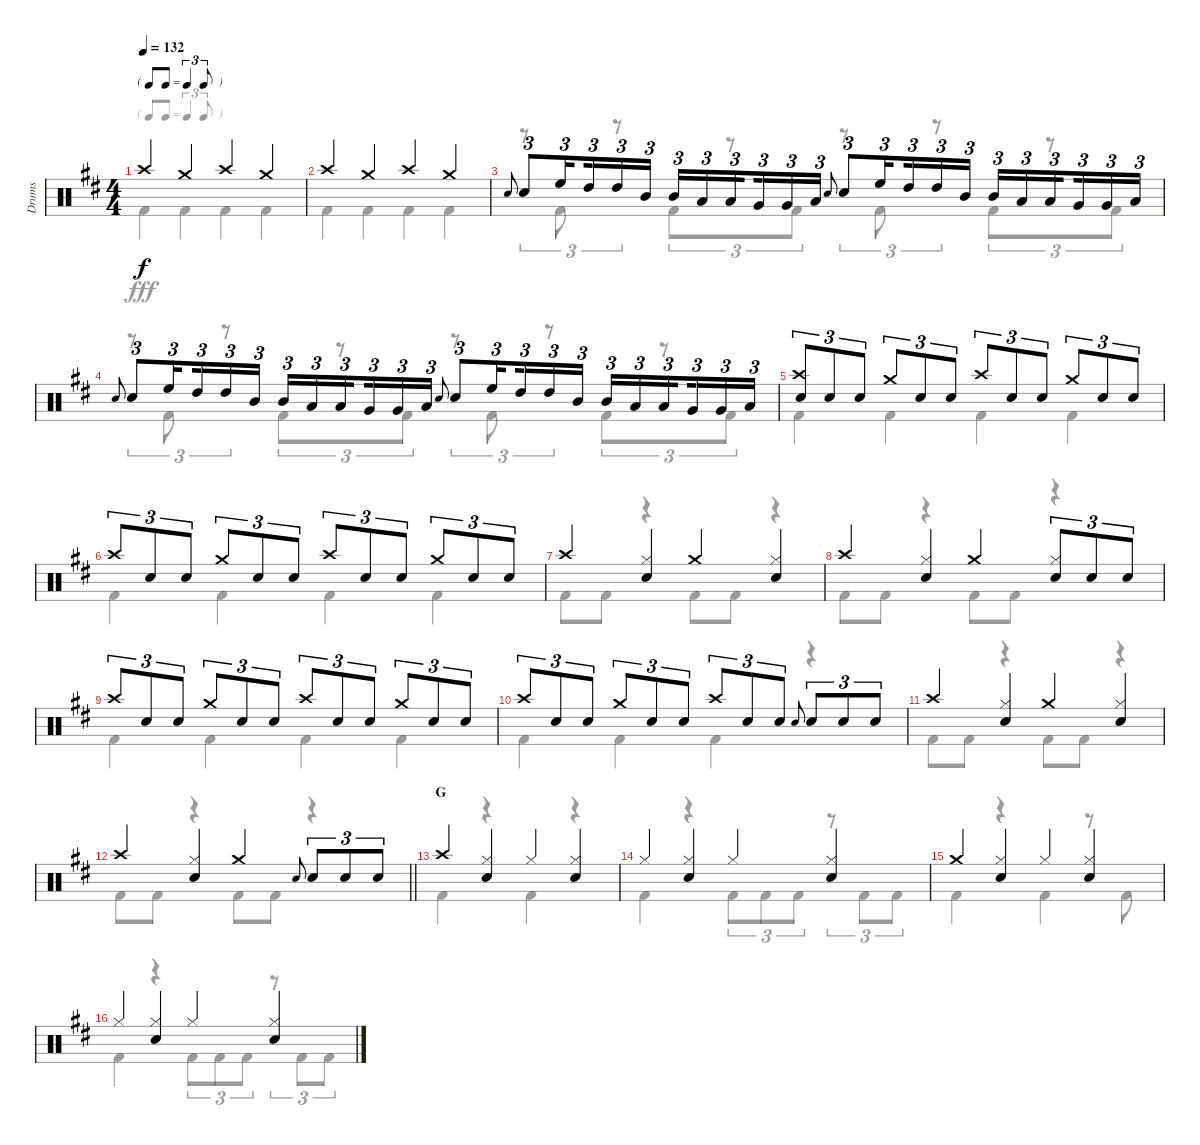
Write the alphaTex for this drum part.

\track ("Drums" "Drums") {instrument percussion}
\staff {score}
\articulation defaults
\voice
\ts (4 4)
\tf triplet8th
\tempo 132
\clef neutral
\ks d "Crash high (hit)".4{dy f} "Crash medium (hit)".4 "Crash high (hit)".4 "Crash medium (hit)".4
|
"Crash high (hit)".4 "Crash medium (hit)".4 "Crash high (hit)".4 "Crash medium (hit)".4 |
"Snare (hit) 2".8{gr onbeat} "Snare (hit) 2".8{tu (3 2)} "High Floor Tom (hit)".16{tu (3 2) beam splitsecondary} "High Tom (hit)".16{tu (3 2)} "High Tom (hit)".16{tu (3 2)} "Mid Tom (hit)".16{tu (3 2)} "Mid Tom (hit)".16{tu (3 2)} "Low Tom (hit)".16{tu (3 2)} "Low Tom (hit)".16{tu (3 2) beam splitsecondary} "Very Low Tom (hit)".16{tu (3 2)} "Very Low Tom (hit)".16{tu (3 2)} "Low Floor Tom (hit)".16{tu (3 2)} "Snare (hit) 2".8{gr onbeat} "Snare (hit) 2".8{tu (3 2)} "High Floor Tom (hit)".16{tu (3 2) beam splitsecondary} "High Tom (hit)".16{tu (3 2)} "High Tom (hit)".16{tu (3 2)} "Mid Tom (hit)".16{tu (3 2)} "Mid Tom (hit)".16{tu (3 2)} "Low Tom (hit)".16{tu (3 2)} "Low Tom (hit)".16{tu (3 2) beam splitsecondary} "Very Low Tom (hit)".16{tu (3 2)} "Very Low Tom (hit)".16{tu (3 2)} "Low Floor Tom (hit)".16{tu (3 2)} |
"Snare (hit) 2".8{gr onbeat} "Snare (hit) 2".8{tu (3 2)} "High Floor Tom (hit)".16{tu (3 2) beam splitsecondary} "High Tom (hit)".16{tu (3 2)} "High Tom (hit)".16{tu (3 2)} "Mid Tom (hit)".16{tu (3 2)} "Mid Tom (hit)".16{tu (3 2)} "Low Tom (hit)".16{tu (3 2)} "Low Tom (hit)".16{tu (3 2) beam splitsecondary} "Very Low Tom (hit)".16{tu (3 2)} "Very Low Tom (hit)".16{tu (3 2)} "Low Floor Tom (hit)".16{tu (3 2)} "Snare (hit) 2".8{gr onbeat} "Snare (hit) 2".8{tu (3 2)} "High Floor Tom (hit)".16{tu (3 2) beam splitsecondary} "High Tom (hit)".16{tu (3 2)} "High Tom (hit)".16{tu (3 2)} "Mid Tom (hit)".16{tu (3 2)} "Mid Tom (hit)".16{tu (3 2)} "Low Tom (hit)".16{tu (3 2)} "Low Tom (hit)".16{tu (3 2) beam splitsecondary} "Very Low Tom (hit)".16{tu (3 2)} "Very Low Tom (hit)".16{tu (3 2)} "Low Floor Tom (hit)".16{tu (3 2)} |
("Crash high (hit)" "Snare (hit) 2").8{tu (3 2)} "Snare (hit) 2".8{tu (3 2)} "Snare (hit) 2".8{tu (3 2)} "Crash medium (hit)".8{tu (3 2)} "Snare (hit) 2".8{tu (3 2)} "Snare (hit) 2".8{tu (3 2)} "Crash high (hit)".8{tu (3 2)} "Snare (hit) 2".8{tu (3 2)} "Snare (hit) 2".8{tu (3 2)} "Crash medium (hit)".8{tu (3 2)} "Snare (hit) 2".8{tu (3 2)} "Snare (hit) 2".8{tu (3 2)} |
"Crash high (hit)".8{tu (3 2)} "Snare (hit) 2".8{tu (3 2)} "Snare (hit) 2".8{tu (3 2)} "Crash medium (hit)".8{tu (3 2)} "Snare (hit) 2".8{tu (3 2)} "Snare (hit) 2".8{tu (3 2)} "Crash high (hit)".8{tu (3 2)} "Snare (hit) 2".8{tu (3 2)} "Snare (hit) 2".8{tu (3 2)} "Crash medium (hit)".8{tu (3 2)} "Snare (hit) 2".8{tu (3 2)} "Snare (hit) 2".8{tu (3 2)} |
"Crash high (hit)".4 ("Hi-Hat (closed)" "Snare (hit) 2").4 "Crash medium (hit)".4 ("Hi-Hat (closed)" "Snare (hit) 2").4 |
"Crash high (hit)".4 ("Hi-Hat (closed)" "Snare (hit) 2").4 "Crash medium (hit)".4 ("Hi-Hat (closed)" "Snare (hit) 2").8{tu (3 2)} "Snare (hit) 2".8{tu (3 2)} "Snare (hit) 2".8{tu (3 2)} |
"Crash high (hit)".8{tu (3 2)} "Snare (hit) 2".8{tu (3 2)} "Snare (hit) 2".8{tu (3 2)} "Crash medium (hit)".8{tu (3 2)} "Snare (hit) 2".8{tu (3 2)} "Snare (hit) 2".8{tu (3 2)} "Crash high (hit)".8{tu (3 2)} "Snare (hit) 2".8{tu (3 2)} "Snare (hit) 2".8{tu (3 2)} "Crash medium (hit)".8{tu (3 2)} "Snare (hit) 2".8{tu (3 2)} "Snare (hit) 2".8{tu (3 2)} |
"Crash high (hit)".8{tu (3 2)} "Snare (hit) 2".8{tu (3 2)} "Snare (hit) 2".8{tu (3 2)} "Crash medium (hit)".8{tu (3 2)} "Snare (hit) 2".8{tu (3 2)} "Snare (hit) 2".8{tu (3 2)} "Crash high (hit)".8{tu (3 2)} "Snare (hit) 2".8{tu (3 2)} "Snare (hit) 2".8{tu (3 2)} "Snare (hit) 2".8{gr onbeat} "Snare (hit) 2".8{tu (3 2)} "Snare (hit) 2".8{tu (3 2)} "Snare (hit) 2".8{tu (3 2)} |
"Crash high (hit)".4 ("Hi-Hat (closed)" "Snare (hit) 2").4 "Crash medium (hit)".4 ("Hi-Hat (closed)" "Snare (hit) 2").4 |
\barLineRight lightlight "Crash high (hit)".4
("Hi-Hat (closed)" "Snare (hit) 2").4 "Crash medium (hit)".4 "Snare (hit) 2".8{gr onbeat} "Snare (hit) 2".8{tu (3 2)} "Snare (hit) 2".8{tu (3 2)} "Snare (hit) 2".8{tu (3 2)} |
\section ("" "G")
"Crash high (hit)".4 ("Hi-Hat (closed)" "Snare (hit) 2").4 "Hi-Hat (closed)".4 ("Hi-Hat (closed)" "Snare (hit) 2").4 |
"Hi-Hat (closed)".4 ("Hi-Hat (closed)" "Snare (hit) 2").4 "Hi-Hat (closed)".4 ("Hi-Hat (closed)" "Snare (hit) 2").4 |
"Crash medium (hit)".4 ("Hi-Hat (closed)" "Snare (hit) 2").4 "Hi-Hat (closed)".4 ("Hi-Hat (closed)" "Snare (hit) 2").4 |
"Hi-Hat (closed)".4 ("Hi-Hat (closed)" "Snare (hit) 2").4 "Hi-Hat (closed)".4 ("Hi-Hat (closed)" "Snare (hit) 2").4
\voice
\clef neutral
\ottava regular
\simile none
\ks d "Kick (hit) 2".4{dy fff} "Kick (hit) 2".4 "Kick (hit) 2".4 "Kick (hit) 2".4
|
"Kick (hit) 2".4 "Kick (hit) 2".4 "Kick (hit) 2".4 "Kick (hit) 2".4 |
r.8{tu (3 2)} "Kick (hit) 2".8{tu (3 2)} r.8{tu (3 2)} "Kick (hit) 2".8{tu (3 2)} r.8{tu (3 2)} "Kick (hit) 2".8{tu (3 2)} r.8{tu (3 2)} "Kick (hit) 2".8{tu (3 2)} r.8{tu (3 2)} "Kick (hit) 2".8{tu (3 2)} r.8{tu (3 2)} "Kick (hit) 2".8{tu (3 2)} |
r.8{tu (3 2)} "Kick (hit) 2".8{tu (3 2)} r.8{tu (3 2)} "Kick (hit) 2".8{tu (3 2)} r.8{tu (3 2)} "Kick (hit) 2".8{tu (3 2)} r.8{tu (3 2)} "Kick (hit) 2".8{tu (3 2)} r.8{tu (3 2)} "Kick (hit) 2".8{tu (3 2)} r.8{tu (3 2)} "Kick (hit) 2".8{tu (3 2)} |
"Kick (hit) 2".4 "Kick (hit) 2".4 "Kick (hit) 2".4 "Kick (hit) 2".4 |
"Kick (hit) 2".4 "Kick (hit) 2".4 "Kick (hit) 2".4 "Kick (hit) 2".4 |
"Kick (hit) 2".8 "Kick (hit) 2".8 r.4 "Kick (hit) 2".8 "Kick (hit) 2".8 r.4 |
"Kick (hit) 2".8 "Kick (hit) 2".8 r.4 "Kick (hit) 2".8 "Kick (hit) 2".8 r.4 |
"Kick (hit) 2".4 "Kick (hit) 2".4 "Kick (hit) 2".4 "Kick (hit) 2".4 |
"Kick (hit) 2".4 "Kick (hit) 2".4 "Kick (hit) 2".4 r.4 |
"Kick (hit) 2".8 "Kick (hit) 2".8 r.4 "Kick (hit) 2".8 "Kick (hit) 2".8 r.4 |
\barLineRight lightlight "Kick (hit) 2".8 "Kick (hit) 2".8
r.4 "Kick (hit) 2".8 "Kick (hit) 2".8 r.4 |
"Kick (hit) 2".4 r.4 "Kick (hit) 2".4 r.4 |
"Kick (hit) 2".4 r.4 "Kick (hit) 2".8{tu (3 2)} "Kick (hit) 2".8{tu (3 2)} "Kick (hit) 2".8{tu (3 2)} r.8{tu (3 2)} "Kick (hit) 2".8{tu (3 2)} "Kick (hit) 2".8{tu (3 2)} |
"Kick (hit) 2".4 r.4 "Kick (hit) 2".4 r.8 "Kick (hit) 2".8 |
"Kick (hit) 2".4 r.4 "Kick (hit) 2".8{tu (3 2)} "Kick (hit) 2".8{tu (3 2)} "Kick (hit) 2".8{tu (3 2)} r.8{tu (3 2)} "Kick (hit) 2".8{tu (3 2)} "Kick (hit) 2".8{tu (3 2)}
